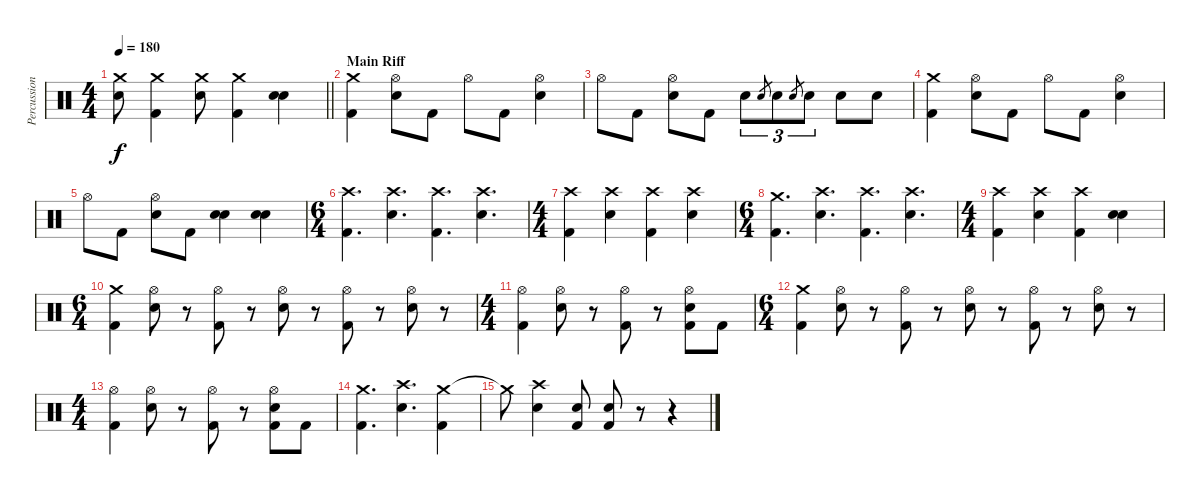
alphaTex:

\track ("Percussion" "Percussion") {instrument percussion}
\staff {score}
\articulation defaults
\ts (4 4)
\tempo 180
\clef neutral
\barLineRight lightlight
\ks c
("Crash medium (hit)" "Snare (hit) 2").8{dy f} ("Crash medium (hit)" "Kick (hit) 2").4 ("Crash medium (hit)" "Snare (hit) 2").8 ("Crash medium (hit)" "Kick (hit) 2").4 ("Snare (hit) 2" "Snare (hit) 2").4 |
\section ("" "Main Riff")
("Crash medium (hit)" "Kick (hit) 2").4 ("Hi-Hat (open)" "Snare (hit) 2").8 "Kick (hit) 2".8 "Hi-Hat (open)".8 "Kick (hit) 2".8 ("Hi-Hat (open)" "Snare (hit) 2").4 |
"Hi-Hat (open)".8 "Kick (hit) 2".8 ("Hi-Hat (open)" "Snare (hit) 2").8 "Kick (hit) 2".8 "Snare (hit) 2".8{tu (3 2)} "Snare (hit) 2".8{gr} "Snare (hit) 2".8{tu (3 2)} "Snare (hit) 2".8{gr} "Snare (hit) 2".8{tu (3 2)} "Snare (hit) 2".8 "Snare (hit) 2".8 |
("Crash medium (hit)" "Kick (hit) 2").4 ("Hi-Hat (open)" "Snare (hit) 2").8 "Kick (hit) 2".8 "Hi-Hat (open)".8 "Kick (hit) 2".8 ("Hi-Hat (open)" "Snare (hit) 2").4 |
"Hi-Hat (open)".8 "Kick (hit) 2".8 ("Hi-Hat (open)" "Snare (hit) 2").8 "Kick (hit) 2".8 ("Snare (hit) 2" "Snare (hit) 2").4 ("Snare (hit) 2" "Snare (hit) 2").4 |
\ts (6 4)
("Crash high (hit)" "Kick (hit) 2").4{d} ("Crash high (hit)" "Snare (hit) 2").4{d} ("Crash high (hit)" "Kick (hit) 2").4{d} ("Crash high (hit)" "Snare (hit) 2").4{d} |
\ts (4 4)
("Crash high (hit)" "Kick (hit) 2").4 ("Crash high (hit)" "Snare (hit) 2").4 ("Crash high (hit)" "Kick (hit) 2").4 ("Crash high (hit)" "Snare (hit) 2").4 |
\ts (6 4)
("Crash medium (hit)" "Kick (hit) 2").4{d} ("Crash high (hit)" "Snare (hit) 2").4{d} ("Crash high (hit)" "Kick (hit) 2").4{d} ("Crash high (hit)" "Snare (hit) 2").4{d} |
\ts (4 4)
("Crash high (hit)" "Kick (hit) 2").4 ("Crash high (hit)" "Snare (hit) 2").4 ("Crash high (hit)" "Kick (hit) 2").4 ("Snare (hit) 2" "Snare (hit) 2").4 |
\ts (6 4)
("Crash medium (hit)" "Kick (hit) 2").4 ("Hi-Hat (open)" "Snare (hit) 2").8 r.8 ("Hi-Hat (open)" "Kick (hit) 2").8 r.8 ("Hi-Hat (open)" "Snare (hit) 2").8 r.8 ("Hi-Hat (open)" "Kick (hit) 2").8 r.8 ("Hi-Hat (open)" "Snare (hit) 2").8 r.8 |
\ts (4 4)
("Hi-Hat (open)" "Kick (hit) 2").4 ("Hi-Hat (open)" "Snare (hit) 2").8 r.8 ("Hi-Hat (open)" "Kick (hit) 2").8 r.8 ("Hi-Hat (open)" "Snare (hit) 2" "Kick (hit) 2").8 "Kick (hit) 2".8 |
\ts (6 4)
("Crash medium (hit)" "Kick (hit) 2").4 ("Hi-Hat (open)" "Snare (hit) 2").8 r.8 ("Hi-Hat (open)" "Kick (hit) 2").8 r.8 ("Hi-Hat (open)" "Snare (hit) 2").8 r.8 ("Hi-Hat (open)" "Kick (hit) 2").8 r.8 ("Hi-Hat (open)" "Snare (hit) 2").8 r.8 |
\ts (4 4)
("Hi-Hat (open)" "Kick (hit) 2").4 ("Hi-Hat (open)" "Snare (hit) 2").8 r.8 ("Hi-Hat (open)" "Kick (hit) 2").8 r.8 ("Hi-Hat (open)" "Snare (hit) 2" "Kick (hit) 2").8 "Kick (hit) 2".8 |
("Crash medium (hit)" "Kick (hit) 2").4{d} ("Crash high (hit)" "Snare (hit) 2").4{d} ("Crash medium (hit)" "Kick (hit) 2").4 |
"Crash medium (hit)"{t}.8 ("Crash high (hit)" "Snare (hit) 2").4 ("Snare (hit) 2" "Kick (hit) 2").8 ("Snare (hit) 2" "Kick (hit) 2").8 r.8 r.4
